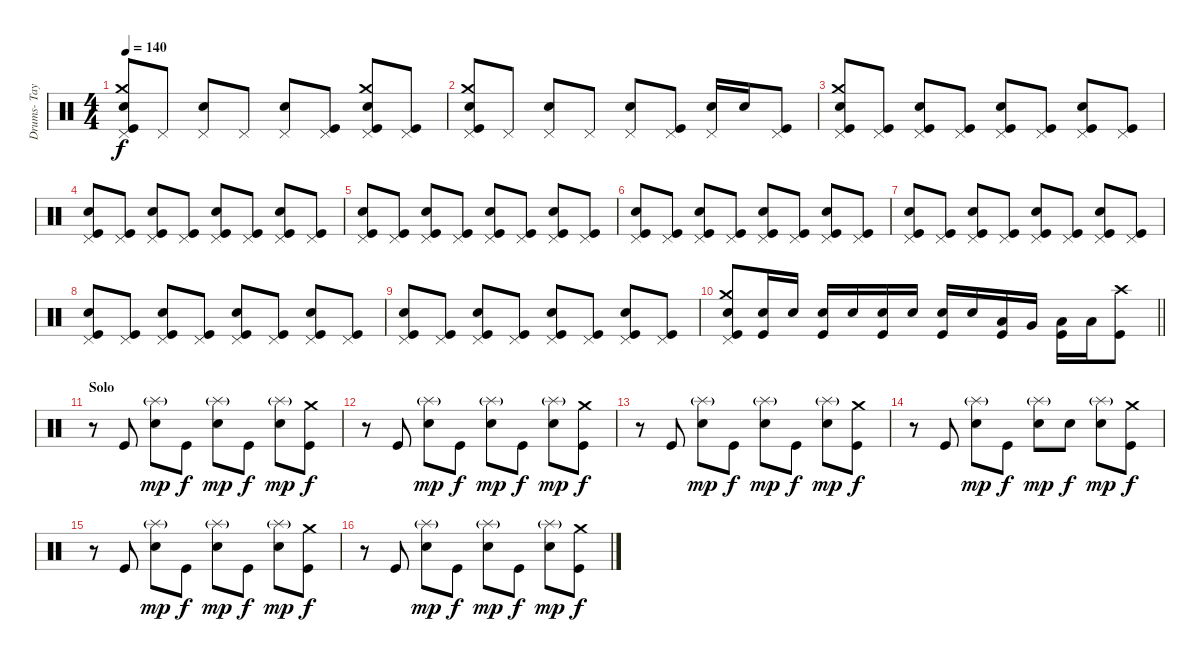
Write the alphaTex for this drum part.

\track ("Drums- Taylor Hawkins" "Drums- Tay") {instrument percussion}
\staff {score}
\articulation defaults
\ts (4 4)
\tempo 140
\clef neutral
\ks c
("Kick (hit)" "Crash medium (hit)" "Snare (hit) 2" "Pedal Hi-Hat (hit)").8{dy f} "Pedal Hi-Hat (hit)".8 ("Snare (hit) 2" "Pedal Hi-Hat (hit)").8 "Pedal Hi-Hat (hit)".8 ("Snare (hit) 2" "Pedal Hi-Hat (hit)").8 ("Pedal Hi-Hat (hit)" "Kick (hit)").8 ("Kick (hit)" "Crash medium (hit)" "Snare (hit) 2" "Pedal Hi-Hat (hit)").8 ("Pedal Hi-Hat (hit)" "Kick (hit)").8 |
("Kick (hit)" "Crash medium (hit)" "Snare (hit) 2" "Pedal Hi-Hat (hit)").8 "Pedal Hi-Hat (hit)".8 ("Snare (hit) 2" "Pedal Hi-Hat (hit)").8 "Pedal Hi-Hat (hit)".8 ("Snare (hit) 2" "Pedal Hi-Hat (hit)").8 ("Pedal Hi-Hat (hit)" "Kick (hit)").8 ("Snare (hit) 2" "Pedal Hi-Hat (hit)").16 "Snare (hit) 2".16 ("Pedal Hi-Hat (hit)" "Kick (hit)").8 |
("Kick (hit)" "Crash medium (hit)" "Snare (hit) 2" "Pedal Hi-Hat (hit)").8 ("Kick (hit)" "Pedal Hi-Hat (hit)").8 ("Kick (hit)" "Snare (hit) 2" "Pedal Hi-Hat (hit)").8 ("Kick (hit)" "Pedal Hi-Hat (hit)").8 ("Kick (hit)" "Snare (hit) 2" "Pedal Hi-Hat (hit)").8 ("Pedal Hi-Hat (hit)" "Kick (hit)").8 ("Kick (hit)" "Snare (hit) 2" "Pedal Hi-Hat (hit)").8 ("Pedal Hi-Hat (hit)" "Kick (hit)").8 |
("Kick (hit)" "Snare (hit) 2" "Pedal Hi-Hat (hit)").8 ("Kick (hit)" "Pedal Hi-Hat (hit)").8 ("Kick (hit)" "Snare (hit) 2" "Pedal Hi-Hat (hit)").8 ("Kick (hit)" "Pedal Hi-Hat (hit)").8 ("Kick (hit)" "Snare (hit) 2" "Pedal Hi-Hat (hit)").8 ("Pedal Hi-Hat (hit)" "Kick (hit)").8 ("Kick (hit)" "Snare (hit) 2" "Pedal Hi-Hat (hit)").8 ("Pedal Hi-Hat (hit)" "Kick (hit)").8 |
("Kick (hit)" "Snare (hit) 2" "Pedal Hi-Hat (hit)").8 ("Kick (hit)" "Pedal Hi-Hat (hit)").8 ("Kick (hit)" "Snare (hit) 2" "Pedal Hi-Hat (hit)").8 ("Kick (hit)" "Pedal Hi-Hat (hit)").8 ("Kick (hit)" "Snare (hit) 2" "Pedal Hi-Hat (hit)").8 ("Pedal Hi-Hat (hit)" "Kick (hit)").8 ("Kick (hit)" "Snare (hit) 2" "Pedal Hi-Hat (hit)").8 ("Pedal Hi-Hat (hit)" "Kick (hit)").8 |
("Kick (hit)" "Snare (hit) 2" "Pedal Hi-Hat (hit)").8 ("Kick (hit)" "Pedal Hi-Hat (hit)").8 ("Kick (hit)" "Snare (hit) 2" "Pedal Hi-Hat (hit)").8 ("Kick (hit)" "Pedal Hi-Hat (hit)").8 ("Kick (hit)" "Snare (hit) 2" "Pedal Hi-Hat (hit)").8 ("Pedal Hi-Hat (hit)" "Kick (hit)").8 ("Kick (hit)" "Snare (hit) 2" "Pedal Hi-Hat (hit)").8 ("Pedal Hi-Hat (hit)" "Kick (hit)").8 |
("Kick (hit)" "Snare (hit) 2" "Pedal Hi-Hat (hit)").8 ("Kick (hit)" "Pedal Hi-Hat (hit)").8 ("Kick (hit)" "Snare (hit) 2" "Pedal Hi-Hat (hit)").8 ("Kick (hit)" "Pedal Hi-Hat (hit)").8 ("Kick (hit)" "Snare (hit) 2" "Pedal Hi-Hat (hit)").8 ("Pedal Hi-Hat (hit)" "Kick (hit)").8 ("Kick (hit)" "Snare (hit) 2" "Pedal Hi-Hat (hit)").8 ("Pedal Hi-Hat (hit)" "Kick (hit)").8 |
("Kick (hit)" "Snare (hit) 2" "Pedal Hi-Hat (hit)").8 ("Kick (hit)" "Pedal Hi-Hat (hit)").8 ("Kick (hit)" "Snare (hit) 2" "Pedal Hi-Hat (hit)").8 ("Kick (hit)" "Pedal Hi-Hat (hit)").8 ("Kick (hit)" "Snare (hit) 2" "Pedal Hi-Hat (hit)").8 ("Pedal Hi-Hat (hit)" "Kick (hit)").8 ("Kick (hit)" "Snare (hit) 2" "Pedal Hi-Hat (hit)").8 ("Pedal Hi-Hat (hit)" "Kick (hit)").8 |
("Kick (hit)" "Snare (hit) 2" "Pedal Hi-Hat (hit)").8 ("Kick (hit)" "Pedal Hi-Hat (hit)").8 ("Kick (hit)" "Snare (hit) 2" "Pedal Hi-Hat (hit)").8 ("Kick (hit)" "Pedal Hi-Hat (hit)").8 ("Kick (hit)" "Snare (hit) 2" "Pedal Hi-Hat (hit)").8 ("Pedal Hi-Hat (hit)" "Kick (hit)").8 ("Kick (hit)" "Snare (hit) 2" "Pedal Hi-Hat (hit)").8 ("Pedal Hi-Hat (hit)" "Kick (hit)").8 |
\barLineRight lightlight
("Kick (hit)" "Crash medium (hit)" "Snare (hit) 2" "Pedal Hi-Hat (hit)").8 ("Snare (hit) 2" "Kick (hit)").16 "Snare (hit) 2".16 ("Snare (hit) 2" "Kick (hit)").16 "Snare (hit) 2".16 ("Snare (hit) 2" "Kick (hit)").16 "Snare (hit) 2".16 ("Snare (hit) 2" "Kick (hit)").16 "Snare (hit) 2".16 ("Low Tom (hit)" "Kick (hit)").16 "Very Low Tom (hit)".16 ("Low Floor Tom (hit)" "Kick (hit)").16 "Low Tom (hit)".16 ("Crash high (hit)" "Kick (hit)").8 |
\section ("" "Solo")
r.8 "Kick (hit)".8 ("Splash (hit)"{g} "Snare (hit) 2").8{dy mp} "Kick (hit)".8{dy f} ("Splash (hit)"{g} "Snare (hit) 2").8{dy mp} "Kick (hit)".8{dy f} ("Splash (hit)"{g} "Snare (hit) 2").8{dy mp} ("Crash medium (hit)" "Kick (hit)").8{dy f} |
r.8 "Kick (hit)".8 ("Splash (hit)"{g} "Snare (hit) 2").8{dy mp} "Kick (hit)".8{dy f} ("Splash (hit)"{g} "Snare (hit) 2").8{dy mp} "Kick (hit)".8{dy f} ("Splash (hit)"{g} "Snare (hit) 2").8{dy mp} ("Crash medium (hit)" "Kick (hit)").8{dy f} |
r.8 "Kick (hit)".8 ("Splash (hit)"{g} "Snare (hit) 2").8{dy mp} "Kick (hit)".8{dy f} ("Splash (hit)"{g} "Snare (hit) 2").8{dy mp} "Kick (hit)".8{dy f} ("Splash (hit)"{g} "Snare (hit) 2").8{dy mp} ("Crash medium (hit)" "Kick (hit)").8{dy f} |
r.8 "Kick (hit)".8 ("Splash (hit)"{g} "Snare (hit) 2").8{dy mp} "Kick (hit)".8{dy f} ("Splash (hit)"{g} "Snare (hit) 2").8{dy mp} "Snare (hit) 2".8{dy f} ("Splash (hit)"{g} "Snare (hit) 2").8{dy mp} ("Crash medium (hit)" "Kick (hit)").8{dy f} |
r.8 "Kick (hit)".8 ("Splash (hit)"{g} "Snare (hit) 2").8{dy mp} "Kick (hit)".8{dy f} ("Splash (hit)"{g} "Snare (hit) 2").8{dy mp} "Kick (hit)".8{dy f} ("Splash (hit)"{g} "Snare (hit) 2").8{dy mp} ("Crash medium (hit)" "Kick (hit)").8{dy f} |
r.8 "Kick (hit)".8 ("Splash (hit)"{g} "Snare (hit) 2").8{dy mp} "Kick (hit)".8{dy f} ("Splash (hit)"{g} "Snare (hit) 2").8{dy mp} "Kick (hit)".8{dy f} ("Splash (hit)"{g} "Snare (hit) 2").8{dy mp} ("Crash medium (hit)" "Kick (hit)").8{dy f}
